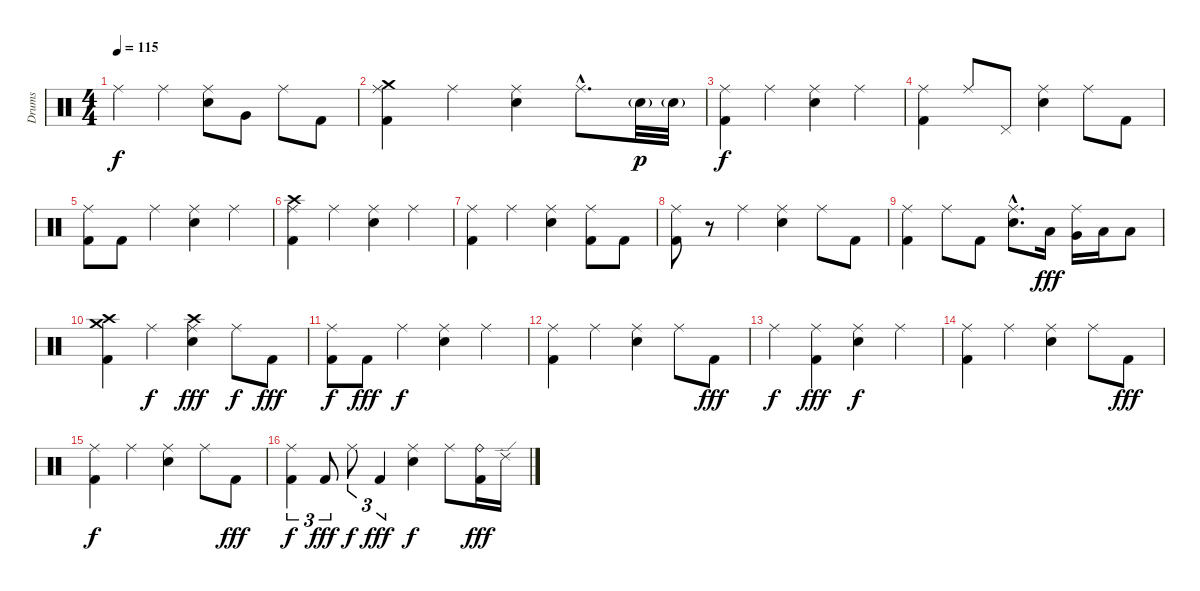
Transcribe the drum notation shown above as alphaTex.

\track ("Drums" "Drums") {instrument percussion}
\staff {score}
\articulation defaults
\ts (4 4)
\tempo 115
\clef neutral
\ks c "Ride (middle)".4{dy f} "Ride (middle)".4
("Ride (middle)" "Electric Snare (hit)").8 "Very Low Tom (hit)".8 "Ride (middle)".8 "Kick (hit) 2".8 |
("Crash medium (hit)" "Ride (middle)" "Kick (hit) 2").4 "Ride (middle)".4 ("Ride (middle)" "Electric Snare (hit)").4 "Ride (middle)"{hac}.8{d} "Electric Snare (hit)"{g}.32{dy p} "Electric Snare (hit)"{g}.32 |
("Ride (middle)" "Kick (hit) 2").4{dy f} "Ride (middle)".4 ("Ride (middle)" "Electric Snare (hit)").4 "Ride (middle)".4 |
("Ride (middle)" "Kick (hit) 2").4 "Ride (middle)".8 "Pedal Hi-Hat (hit)".8 ("Ride (middle)" "Electric Snare (hit)").4 "Ride (middle)".8 "Kick (hit) 2".8 |
("Ride (middle)" "Kick (hit) 2").8 "Kick (hit) 2".8 "Ride (middle)".4 ("Ride (middle)" "Electric Snare (hit)").4 "Ride (middle)".4 |
("Crash high (hit)" "Ride (middle)" "Kick (hit) 2").4 "Ride (middle)".4 ("Ride (middle)" "Electric Snare (hit)").4 "Ride (middle)".4 |
("Ride (middle)" "Kick (hit) 2").4 "Ride (middle)".4 ("Ride (middle)" "Electric Snare (hit)").4 ("Ride (middle)" "Kick (hit) 2").8 "Kick (hit) 2".8 |
("Ride (middle)" "Kick (hit) 2").8 r.8 "Ride (middle)".4 ("Ride (middle)" "Electric Snare (hit)").4 "Ride (middle)".8 "Kick (hit) 2".8 |
("Ride (middle)" "Kick (hit) 2").4 "Ride (middle)".8 "Kick (hit) 2".8 ("Ride (middle)"{hac} "Electric Snare (hit)"{hac}).8{d} "Low Tom (hit)".16{dy fff} ("Ride (middle)" "Very Low Tom (hit)").16 "Low Tom (hit)".16 "Low Floor Tom (hit)".8 |
("Crash medium (hit)" "Crash high (hit)" "Kick (hit) 2").4 "Ride (middle)".4{dy f} ("Crash high (hit)" "Ride (middle)" "Electric Snare (hit)").4{dy fff} "Ride (middle)".8{dy f} "Kick (hit) 2".8{dy fff} |
("Ride (middle)" "Kick (hit) 2").8{dy f} "Kick (hit) 2".8{dy fff} "Ride (middle)".4{dy f} ("Ride (middle)" "Electric Snare (hit)").4 "Ride (middle)".4 |
("Ride (middle)" "Kick (hit) 2").4 "Ride (middle)".4 ("Ride (middle)" "Electric Snare (hit)").4 "Ride (middle)".8 "Kick (hit) 2".8{dy fff} |
"Ride (middle)".4{dy f} ("Ride (middle)" "Kick (hit) 2").4{dy fff} ("Ride (middle)" "Electric Snare (hit)").4{dy f} "Ride (middle)".4 |
("Ride (middle)" "Kick (hit) 2").4 "Ride (middle)".4 ("Ride (middle)" "Electric Snare (hit)").4 "Ride (middle)".8 "Kick (hit) 2".8{dy fff} |
("Ride (middle)" "Kick (hit) 2").4{dy f} "Ride (middle)".4 ("Ride (middle)" "Electric Snare (hit)").4 "Ride (middle)".8 "Kick (hit) 2".8{dy fff} |
("Ride (middle)" "Kick (hit) 2").4{tu (3 2) dy f} "Kick (hit) 2".8{tu (3 2) dy fff} "Ride (middle)".8{tu (3 2) dy f} "Kick (hit) 2".4{tu (3 2) dy fff} ("Ride (middle)" "Electric Snare (hit)").4{dy f} "Ride (middle)".8 ("Ride (bell)" "Kick (hit) 2").16{dy fff} "Ride (edge) 2".16
